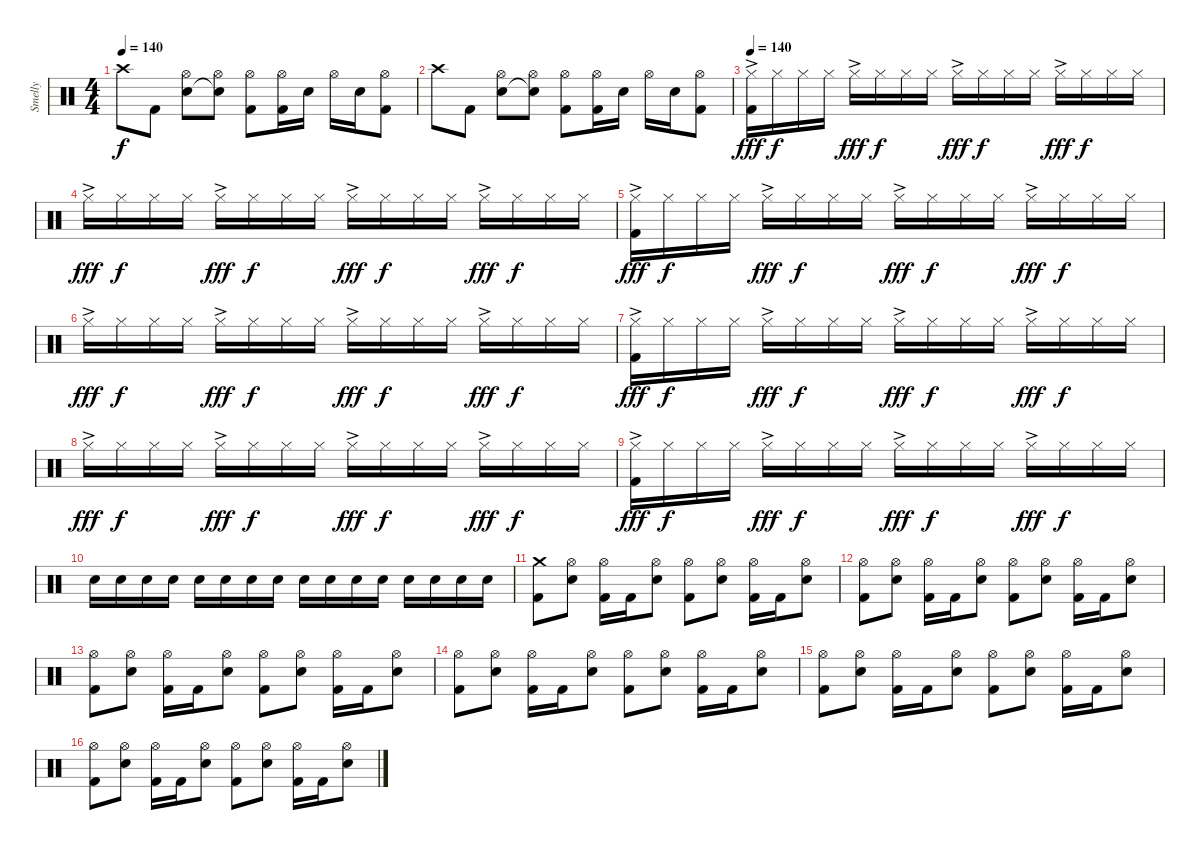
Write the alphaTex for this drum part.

\track ("Smelly" "Smelly") {instrument percussion}
\staff {score}
\articulation defaults
\ts (4 4)
\tempo 140
\clef neutral
\ks c "Crash high (hit)".8{dy f} "Kick (hit) 2".8
("Hi-Hat (open)" "Electric Snare (hit)").8 ("Hi-Hat (open)" "Snare (hit)"{t}).8 ("Hi-Hat (open)" "Kick (hit) 2").8 ("Hi-Hat (open)" "Kick (hit) 2").16 "Electric Snare (hit)".16 "Hi-Hat (open)".16 "Electric Snare (hit)".16 ("Hi-Hat (open)" "Kick (hit) 2").8 |
"Crash high (hit)".8 "Kick (hit) 2".8 ("Hi-Hat (open)" "Electric Snare (hit)").8 ("Hi-Hat (open)" "Snare (hit)"{t}).8 ("Hi-Hat (open)" "Kick (hit) 2").8 ("Hi-Hat (open)" "Kick (hit) 2").16 "Electric Snare (hit)".16 "Hi-Hat (open)".16 "Electric Snare (hit)".16 ("Hi-Hat (open)" "Kick (hit) 2").8 |
\tempo 140
("Hi-Hat (closed)"{ac} "Kick (hit) 2").16{dy fff} "Hi-Hat (closed)".16{dy f} "Hi-Hat (closed)".16 "Hi-Hat (closed)".16 "Hi-Hat (closed)"{ac}.16{dy fff} "Hi-Hat (closed)".16{dy f} "Hi-Hat (closed)".16 "Hi-Hat (closed)".16 "Hi-Hat (closed)"{ac}.16{dy fff} "Hi-Hat (closed)".16{dy f} "Hi-Hat (closed)".16 "Hi-Hat (closed)".16 "Hi-Hat (closed)"{ac}.16{dy fff} "Hi-Hat (closed)".16{dy f} "Hi-Hat (closed)".16 "Hi-Hat (closed)".16 |
"Hi-Hat (closed)"{ac}.16{dy fff} "Hi-Hat (closed)".16{dy f} "Hi-Hat (closed)".16 "Hi-Hat (closed)".16 "Hi-Hat (closed)"{ac}.16{dy fff} "Hi-Hat (closed)".16{dy f} "Hi-Hat (closed)".16 "Hi-Hat (closed)".16 "Hi-Hat (closed)"{ac}.16{dy fff} "Hi-Hat (closed)".16{dy f} "Hi-Hat (closed)".16 "Hi-Hat (closed)".16 "Hi-Hat (closed)"{ac}.16{dy fff} "Hi-Hat (closed)".16{dy f} "Hi-Hat (closed)".16 "Hi-Hat (closed)".16 |
("Hi-Hat (closed)"{ac} "Kick (hit) 2").16{dy fff} "Hi-Hat (closed)".16{dy f} "Hi-Hat (closed)".16 "Hi-Hat (closed)".16 "Hi-Hat (closed)"{ac}.16{dy fff} "Hi-Hat (closed)".16{dy f} "Hi-Hat (closed)".16 "Hi-Hat (closed)".16 "Hi-Hat (closed)"{ac}.16{dy fff} "Hi-Hat (closed)".16{dy f} "Hi-Hat (closed)".16 "Hi-Hat (closed)".16 "Hi-Hat (closed)"{ac}.16{dy fff} "Hi-Hat (closed)".16{dy f} "Hi-Hat (closed)".16 "Hi-Hat (closed)".16 |
"Hi-Hat (closed)"{ac}.16{dy fff} "Hi-Hat (closed)".16{dy f} "Hi-Hat (closed)".16 "Hi-Hat (closed)".16 "Hi-Hat (closed)"{ac}.16{dy fff} "Hi-Hat (closed)".16{dy f} "Hi-Hat (closed)".16 "Hi-Hat (closed)".16 "Hi-Hat (closed)"{ac}.16{dy fff} "Hi-Hat (closed)".16{dy f} "Hi-Hat (closed)".16 "Hi-Hat (closed)".16 "Hi-Hat (closed)"{ac}.16{dy fff} "Hi-Hat (closed)".16{dy f} "Hi-Hat (closed)".16 "Hi-Hat (closed)".16 |
("Hi-Hat (closed)"{ac} "Kick (hit) 2").16{dy fff} "Hi-Hat (closed)".16{dy f} "Hi-Hat (closed)".16 "Hi-Hat (closed)".16 "Hi-Hat (closed)"{ac}.16{dy fff} "Hi-Hat (closed)".16{dy f} "Hi-Hat (closed)".16 "Hi-Hat (closed)".16 "Hi-Hat (closed)"{ac}.16{dy fff} "Hi-Hat (closed)".16{dy f} "Hi-Hat (closed)".16 "Hi-Hat (closed)".16 "Hi-Hat (closed)"{ac}.16{dy fff} "Hi-Hat (closed)".16{dy f} "Hi-Hat (closed)".16 "Hi-Hat (closed)".16 |
"Hi-Hat (closed)"{ac}.16{dy fff} "Hi-Hat (closed)".16{dy f} "Hi-Hat (closed)".16 "Hi-Hat (closed)".16 "Hi-Hat (closed)"{ac}.16{dy fff} "Hi-Hat (closed)".16{dy f} "Hi-Hat (closed)".16 "Hi-Hat (closed)".16 "Hi-Hat (closed)"{ac}.16{dy fff} "Hi-Hat (closed)".16{dy f} "Hi-Hat (closed)".16 "Hi-Hat (closed)".16 "Hi-Hat (closed)"{ac}.16{dy fff} "Hi-Hat (closed)".16{dy f} "Hi-Hat (closed)".16 "Hi-Hat (closed)".16 |
("Hi-Hat (closed)"{ac} "Kick (hit) 2").16{dy fff} "Hi-Hat (closed)".16{dy f} "Hi-Hat (closed)".16 "Hi-Hat (closed)".16 "Hi-Hat (closed)"{ac}.16{dy fff} "Hi-Hat (closed)".16{dy f} "Hi-Hat (closed)".16 "Hi-Hat (closed)".16 "Hi-Hat (closed)"{ac}.16{dy fff} "Hi-Hat (closed)".16{dy f} "Hi-Hat (closed)".16 "Hi-Hat (closed)".16 "Hi-Hat (closed)"{ac}.16{dy fff} "Hi-Hat (closed)".16{dy f} "Hi-Hat (closed)".16 "Hi-Hat (closed)".16 |
"Electric Snare (hit)".16 "Electric Snare (hit)".16 "Electric Snare (hit)".16 "Electric Snare (hit)".16 "Electric Snare (hit)".16 "Electric Snare (hit)".16 "Electric Snare (hit)".16 "Electric Snare (hit)".16 "Electric Snare (hit)".16 "Electric Snare (hit)".16 "Electric Snare (hit)".16 "Electric Snare (hit)".16 "Electric Snare (hit)".16 "Electric Snare (hit)".16 "Electric Snare (hit)".16 "Electric Snare (hit)".16 |
("Crash medium (hit)" "Kick (hit) 2").8 ("Hi-Hat (open)" "Electric Snare (hit)").8 ("Hi-Hat (open)" "Kick (hit) 2").16 "Kick (hit) 2".16 ("Hi-Hat (open)" "Electric Snare (hit)").8 ("Hi-Hat (open)" "Kick (hit) 2").8 ("Hi-Hat (open)" "Electric Snare (hit)").8 ("Hi-Hat (open)" "Kick (hit) 2").16 "Kick (hit) 2".16 ("Hi-Hat (open)" "Electric Snare (hit)").8 |
("Hi-Hat (open)" "Kick (hit) 2").8 ("Hi-Hat (open)" "Electric Snare (hit)").8 ("Hi-Hat (open)" "Kick (hit) 2").16 "Kick (hit) 2".16 ("Hi-Hat (open)" "Electric Snare (hit)").8 ("Hi-Hat (open)" "Kick (hit) 2").8 ("Hi-Hat (open)" "Electric Snare (hit)").8 ("Hi-Hat (open)" "Kick (hit) 2").16 "Kick (hit) 2".16 ("Hi-Hat (open)" "Electric Snare (hit)").8 |
("Hi-Hat (open)" "Kick (hit) 2").8 ("Hi-Hat (open)" "Electric Snare (hit)").8 ("Hi-Hat (open)" "Kick (hit) 2").16 "Kick (hit) 2".16 ("Hi-Hat (open)" "Electric Snare (hit)").8 ("Hi-Hat (open)" "Kick (hit) 2").8 ("Hi-Hat (open)" "Electric Snare (hit)").8 ("Hi-Hat (open)" "Kick (hit) 2").16 "Kick (hit) 2".16 ("Hi-Hat (open)" "Electric Snare (hit)").8 |
("Hi-Hat (open)" "Kick (hit) 2").8 ("Hi-Hat (open)" "Electric Snare (hit)").8 ("Hi-Hat (open)" "Kick (hit) 2").16 "Kick (hit) 2".16 ("Hi-Hat (open)" "Electric Snare (hit)").8 ("Hi-Hat (open)" "Kick (hit) 2").8 ("Hi-Hat (open)" "Electric Snare (hit)").8 ("Hi-Hat (open)" "Kick (hit) 2").16 "Kick (hit) 2".16 ("Hi-Hat (open)" "Electric Snare (hit)").8 |
("Hi-Hat (open)" "Kick (hit) 2").8 ("Hi-Hat (open)" "Electric Snare (hit)").8 ("Hi-Hat (open)" "Kick (hit) 2").16 "Kick (hit) 2".16 ("Hi-Hat (open)" "Electric Snare (hit)").8 ("Hi-Hat (open)" "Kick (hit) 2").8 ("Hi-Hat (open)" "Electric Snare (hit)").8 ("Hi-Hat (open)" "Kick (hit) 2").16 "Kick (hit) 2".16 ("Hi-Hat (open)" "Electric Snare (hit)").8 |
("Hi-Hat (open)" "Kick (hit) 2").8 ("Hi-Hat (open)" "Electric Snare (hit)").8 ("Hi-Hat (open)" "Kick (hit) 2").16 "Kick (hit) 2".16 ("Hi-Hat (open)" "Electric Snare (hit)").8 ("Hi-Hat (open)" "Kick (hit) 2").8 ("Hi-Hat (open)" "Electric Snare (hit)").8 ("Hi-Hat (open)" "Kick (hit) 2").16 "Kick (hit) 2".16 ("Hi-Hat (open)" "Electric Snare (hit)").8
